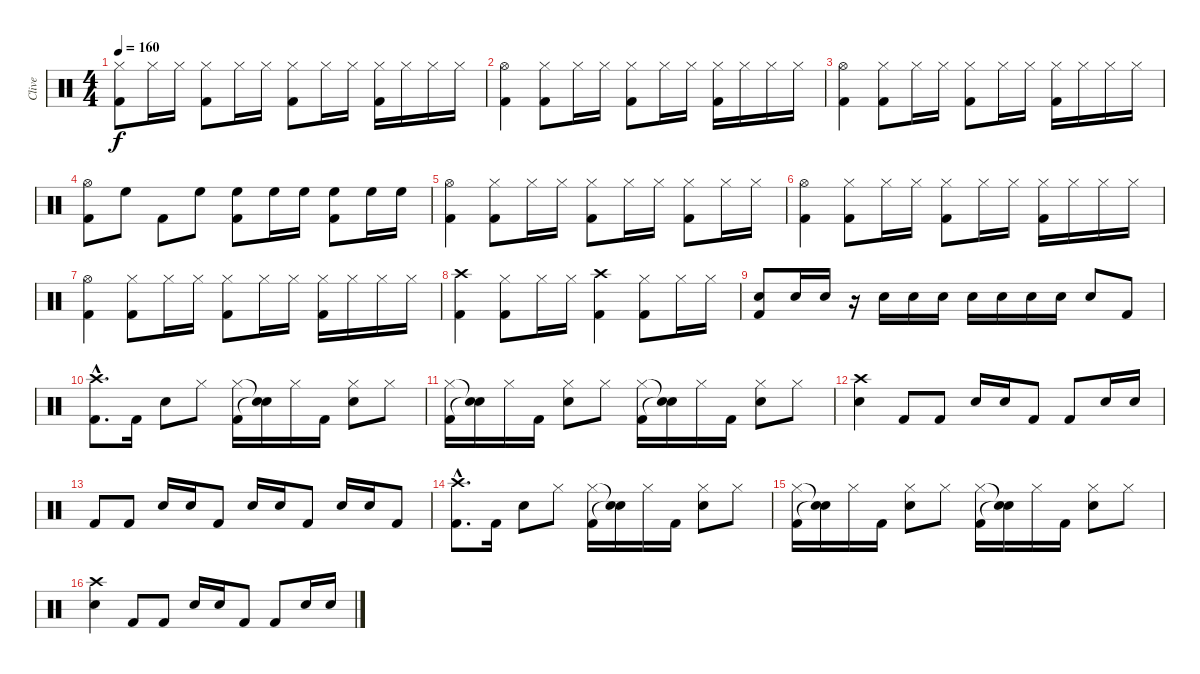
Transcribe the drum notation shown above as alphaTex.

\track ("Clive" "Clive") {instrument percussion}
\staff {score}
\articulation defaults
\ts (4 4)
\tempo 160
\clef neutral
\ks c
("Hi-Hat (closed)" "Kick (hit) 2").8{dy f} "Hi-Hat (closed)".16 "Hi-Hat (closed)".16 ("Hi-Hat (closed)" "Kick (hit) 2").8 "Hi-Hat (closed)".16 "Hi-Hat (closed)".16 ("Hi-Hat (closed)" "Kick (hit) 2").8 "Hi-Hat (closed)".16 "Hi-Hat (closed)".16 ("Hi-Hat (closed)" "Kick (hit) 2").16 "Hi-Hat (closed)".16 "Hi-Hat (closed)".16 "Hi-Hat (closed)".16 |
("Hi-Hat (open)" "Kick (hit) 2").4 ("Hi-Hat (closed)" "Kick (hit) 2").8 "Hi-Hat (closed)".16 "Hi-Hat (closed)".16 ("Hi-Hat (closed)" "Kick (hit) 2").8 "Hi-Hat (closed)".16 "Hi-Hat (closed)".16 ("Hi-Hat (closed)" "Kick (hit) 2").16 "Hi-Hat (closed)".16 "Hi-Hat (closed)".16 "Hi-Hat (closed)".16 |
("Hi-Hat (open)" "Kick (hit) 2").4 ("Hi-Hat (closed)" "Kick (hit) 2").8 "Hi-Hat (closed)".16 "Hi-Hat (closed)".16 ("Hi-Hat (closed)" "Kick (hit) 2").8 "Hi-Hat (closed)".16 "Hi-Hat (closed)".16 ("Hi-Hat (closed)" "Kick (hit) 2").16 "Hi-Hat (closed)".16 "Hi-Hat (closed)".16 "Hi-Hat (closed)".16 |
("Hi-Hat (open)" "Kick (hit) 2").8 "High Floor Tom (hit)".8 "Kick (hit) 2".8 "High Floor Tom (hit)".8 ("High Floor Tom (hit)" "Kick (hit) 2").8 "High Floor Tom (hit)".16 "High Floor Tom (hit)".16 ("High Floor Tom (hit)" "Kick (hit) 2").8 "High Floor Tom (hit)".16 "High Floor Tom (hit)".16 |
("Hi-Hat (open)" "Kick (hit) 2").4 ("Hi-Hat (closed)" "Kick (hit) 2").8 "Hi-Hat (closed)".16 "Hi-Hat (closed)".16 ("Hi-Hat (closed)" "Kick (hit) 2").8 "Hi-Hat (closed)".16 "Hi-Hat (closed)".16 ("Hi-Hat (closed)" "Kick (hit) 2").8 "Hi-Hat (closed)".16 "Hi-Hat (closed)".16 |
("Hi-Hat (open)" "Kick (hit) 2").4 ("Hi-Hat (closed)" "Kick (hit) 2").8 "Hi-Hat (closed)".16 "Hi-Hat (closed)".16 ("Hi-Hat (closed)" "Kick (hit) 2").8 "Hi-Hat (closed)".16 "Hi-Hat (closed)".16 ("Hi-Hat (closed)" "Kick (hit) 2").16 "Hi-Hat (closed)".16 "Hi-Hat (closed)".16 "Hi-Hat (closed)".16 |
("Hi-Hat (open)" "Kick (hit) 2").4 ("Hi-Hat (closed)" "Kick (hit) 2").8 "Hi-Hat (closed)".16 "Hi-Hat (closed)".16 ("Hi-Hat (closed)" "Kick (hit) 2").8 "Hi-Hat (closed)".16 "Hi-Hat (closed)".16 ("Hi-Hat (closed)" "Kick (hit) 2").16 "Hi-Hat (closed)".16 "Hi-Hat (closed)".16 "Hi-Hat (closed)".16 |
("Crash high (hit)" "Kick (hit) 2").4 ("Hi-Hat (closed)" "Kick (hit) 2").8 "Hi-Hat (closed)".16 "Hi-Hat (closed)".16 ("Crash high (hit)" "Kick (hit) 2").4 ("Hi-Hat (closed)" "Kick (hit) 2").8 "Hi-Hat (closed)".16 "Hi-Hat (closed)".16 |
("Snare (hit) 2" "Kick (hit) 2").8 "Snare (hit) 2".16 "Snare (hit) 2".16 r.16 "Snare (hit) 2".16 "Snare (hit) 2".16 "Snare (hit) 2".16 "Snare (hit) 2".16 "Snare (hit) 2".16 "Snare (hit) 2".16 "Snare (hit) 2".16 "Snare (hit) 2".8 "Kick (hit) 2".8 |
("Crash high (hit)"{hac} "Kick (hit) 2"{hac}).8{d} "Kick (hit) 2".16 "Snare (hit) 2".8 "Hi-Hat (closed)".8 ("Hi-Hat (closed)" "Kick (hit) 2").16 ("Snare (hit)"{t} "Snare (hit)"{t}).16 "Hi-Hat (closed)".16 "Kick (hit) 2".16 ("Hi-Hat (closed)" "Snare (hit) 2").8 "Hi-Hat (closed)".8 |
("Hi-Hat (closed)" "Kick (hit) 2").16 ("Snare (hit)"{t} "Snare (hit)"{t}).16 "Hi-Hat (closed)".16 "Kick (hit) 2".16 ("Hi-Hat (closed)" "Snare (hit) 2").8 "Hi-Hat (closed)".8 ("Hi-Hat (closed)" "Kick (hit) 2").16 ("Snare (hit)"{t} "Snare (hit)"{t}).16 "Hi-Hat (closed)".16 "Kick (hit) 2".16 ("Hi-Hat (closed)" "Snare (hit) 2").8 "Hi-Hat (closed)".8 |
("Crash high (hit)" "Snare (hit) 2").4 "Kick (hit) 2".8 "Kick (hit) 2".8 "Snare (hit) 2".16 "Snare (hit) 2".16 "Kick (hit) 2".8 "Kick (hit) 2".8 "Snare (hit) 2".16 "Snare (hit) 2".16 |
"Kick (hit) 2".8 "Kick (hit) 2".8 "Snare (hit) 2".16 "Snare (hit) 2".16 "Kick (hit) 2".8 "Snare (hit) 2".16 "Snare (hit) 2".16 "Kick (hit) 2".8 "Snare (hit) 2".16 "Snare (hit) 2".16 "Kick (hit) 2".8 |
("Crash high (hit)"{hac} "Kick (hit) 2"{hac}).8{d} "Kick (hit) 2".16 "Snare (hit) 2".8 "Hi-Hat (closed)".8 ("Hi-Hat (closed)" "Kick (hit) 2").16 ("Snare (hit)"{t} "Snare (hit)"{t}).16 "Hi-Hat (closed)".16 "Kick (hit) 2".16 ("Hi-Hat (closed)" "Snare (hit) 2").8 "Hi-Hat (closed)".8 |
("Hi-Hat (closed)" "Kick (hit) 2").16 ("Snare (hit)"{t} "Snare (hit)"{t}).16 "Hi-Hat (closed)".16 "Kick (hit) 2".16 ("Hi-Hat (closed)" "Snare (hit) 2").8 "Hi-Hat (closed)".8 ("Hi-Hat (closed)" "Kick (hit) 2").16 ("Snare (hit)"{t} "Snare (hit)"{t}).16 "Hi-Hat (closed)".16 "Kick (hit) 2".16 ("Hi-Hat (closed)" "Snare (hit) 2").8 "Hi-Hat (closed)".8 |
("Crash high (hit)" "Snare (hit) 2").4 "Kick (hit) 2".8 "Kick (hit) 2".8 "Snare (hit) 2".16 "Snare (hit) 2".16 "Kick (hit) 2".8 "Kick (hit) 2".8 "Snare (hit) 2".16 "Snare (hit) 2".16
